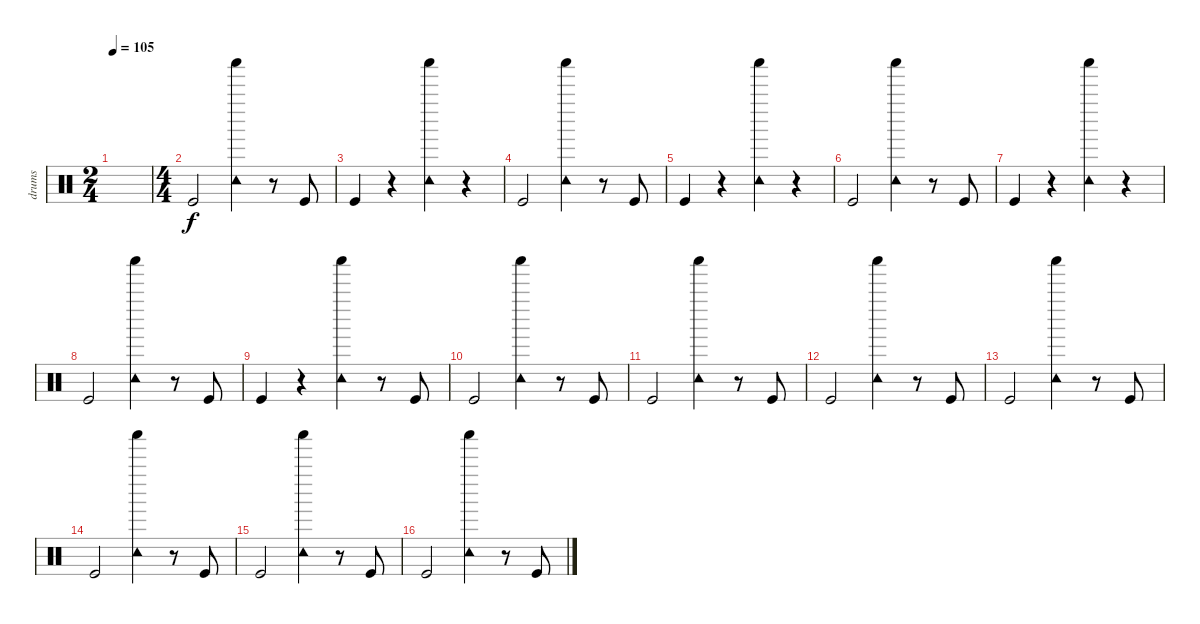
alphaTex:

\track ("drums" "drums") {instrument percussion}
\staff {score}
\articulation defaults
\ts (2 4)
\tempo 105
\clef neutral
\ks c
|
\ts (4 4)
"Kick (hit)".2 ("Tambourine (hit)" "Shaker (hit)").4 r.8 "Kick (hit)".8 |
"Kick (hit)".4 r.4 ("Tambourine (hit)" "Shaker (hit)").4 r.4 |
"Kick (hit)".2 ("Tambourine (hit)" "Shaker (hit)").4 r.8 "Kick (hit)".8 |
"Kick (hit)".4 r.4 ("Tambourine (hit)" "Shaker (hit)").4 r.4 |
"Kick (hit)".2 ("Tambourine (hit)" "Shaker (hit)").4 r.8 "Kick (hit)".8 |
"Kick (hit)".4 r.4 ("Tambourine (hit)" "Shaker (hit)").4 r.4 |
"Kick (hit)".2 ("Tambourine (hit)" "Shaker (hit)").4 r.8 "Kick (hit)".8 |
"Kick (hit)".4 r.4 ("Tambourine (hit)" "Shaker (hit)").4 r.8 "Kick (hit)".8 |
"Kick (hit)".2 ("Tambourine (hit)" "Shaker (hit)").4 r.8 "Kick (hit)".8 |
"Kick (hit)".2 ("Tambourine (hit)" "Shaker (hit)").4 r.8 "Kick (hit)".8 |
"Kick (hit)".2 ("Tambourine (hit)" "Shaker (hit)").4 r.8 "Kick (hit)".8 |
"Kick (hit)".2 ("Tambourine (hit)" "Shaker (hit)").4 r.8 "Kick (hit)".8 |
"Kick (hit)".2 ("Tambourine (hit)" "Shaker (hit)").4 r.8 "Kick (hit)".8 |
"Kick (hit)".2 ("Tambourine (hit)" "Shaker (hit)").4 r.8 "Kick (hit)".8 |
"Kick (hit)".2 ("Tambourine (hit)" "Shaker (hit)").4 r.8 "Kick (hit)".8
